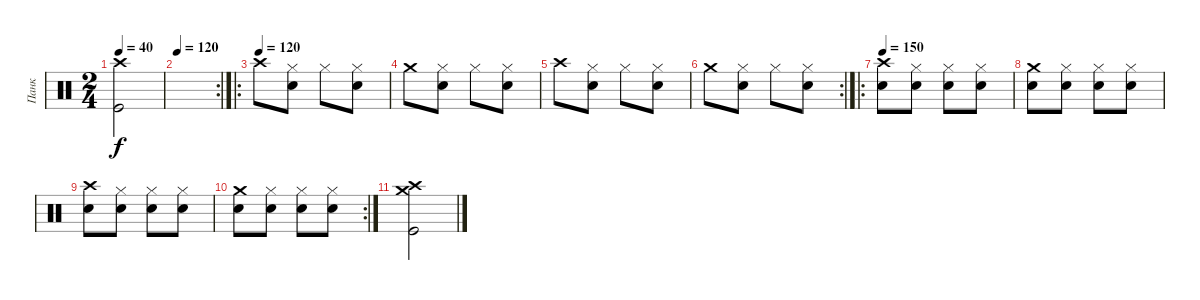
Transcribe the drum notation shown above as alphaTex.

\track ("Панк" "Панк") {instrument percussion}
\staff {score}
\articulation defaults
\ts (2 4)
\tempo 40
\clef neutral
\ks c
("Crash high (hit)" "Kick (hit)").2{dy f} |
\rc 2
\tempo 120
|
\ro
\tempo (120)
"Crash high (hit)".8 ("Hi-Hat (closed)" "Electric Snare (hit)").8 "Hi-Hat (closed)".8 ("Hi-Hat (closed)" "Electric Snare (hit)").8 |
"Crash medium (hit)".8 ("Hi-Hat (closed)" "Electric Snare (hit)").8 "Hi-Hat (closed)".8 ("Hi-Hat (closed)" "Electric Snare (hit)").8 |
"Crash high (hit)".8 ("Hi-Hat (closed)" "Electric Snare (hit)").8 "Hi-Hat (closed)".8 ("Hi-Hat (closed)" "Electric Snare (hit)").8 |
\rc 2 "Crash medium (hit)".8
("Hi-Hat (closed)" "Electric Snare (hit)").8 "Hi-Hat (closed)".8 ("Hi-Hat (closed)" "Electric Snare (hit)").8 |
\ro
\tempo 150
("Crash high (hit)" "Electric Snare (hit)").8 ("Hi-Hat (closed)" "Electric Snare (hit)").8 ("Hi-Hat (closed)" "Electric Snare (hit)").8 ("Hi-Hat (closed)" "Electric Snare (hit)").8 |
("Crash medium (hit)" "Electric Snare (hit)").8 ("Hi-Hat (closed)" "Electric Snare (hit)").8 ("Hi-Hat (closed)" "Electric Snare (hit)").8 ("Hi-Hat (closed)" "Electric Snare (hit)").8 |
("Crash high (hit)" "Electric Snare (hit)").8 ("Hi-Hat (closed)" "Electric Snare (hit)").8 ("Hi-Hat (closed)" "Electric Snare (hit)").8 ("Hi-Hat (closed)" "Electric Snare (hit)").8 |
\rc 2
("Crash medium (hit)" "Electric Snare (hit)").8 ("Hi-Hat (closed)" "Electric Snare (hit)").8 ("Hi-Hat (closed)" "Electric Snare (hit)").8 ("Hi-Hat (closed)" "Electric Snare (hit)").8 |
("Crash high (hit)" "Crash medium (hit)" "Kick (hit)").2
